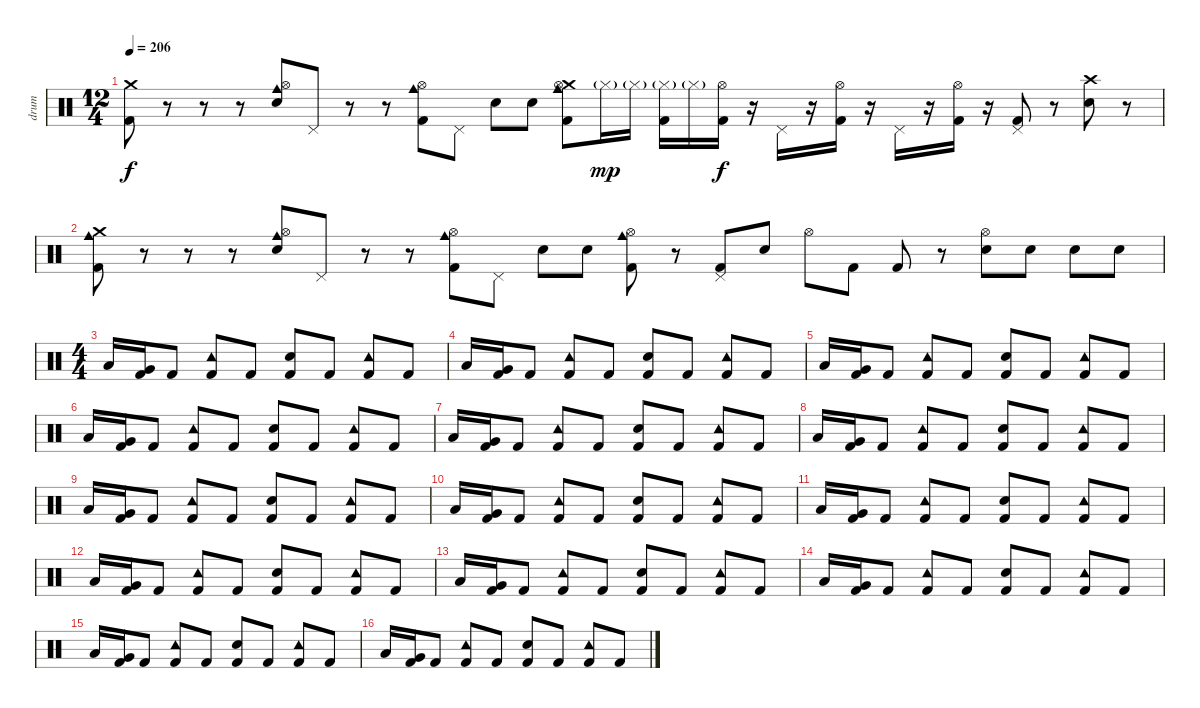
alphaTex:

\track ("drum" "drum") {instrument percussion}
\staff {score}
\articulation defaults
\ts (12 4)
\tempo 206
\clef neutral
\ks c
("Crash medium (hit)" "Kick (hit) 2").8{dy f} r.8 r.8 r.8 ("Cowbell medium (hit)" "Hi-Hat (open)" "Electric Snare (hit)").8 "Pedal Hi-Hat (hit)".8 r.8 r.8 ("Cowbell medium (hit)" "Hi-Hat (open)" "Kick (hit) 2").8 "Pedal Hi-Hat (hit)".8 "Electric Snare (hit)".8 "Electric Snare (hit)".8 ("Crash medium (hit)" "Cowbell medium (hit)" "Hi-Hat (open)" "Kick (hit) 2").8 "Hi-Hat (closed)"{g}.16{dy mp} "Hi-Hat (closed)"{g}.16 ("Hi-Hat (closed)"{g} "Kick (hit) 2").16 "Hi-Hat (closed)"{g}.16 ("Hi-Hat (open)" "Kick (hit) 2").16{dy f} r.16 "Pedal Hi-Hat (hit)".16 r.16 ("Hi-Hat (open)" "Kick (hit) 2").16 r.16 "Pedal Hi-Hat (hit)".16 r.16 ("Hi-Hat (open)" "Kick (hit) 2").16 r.16 ("Pedal Hi-Hat (hit)" "Kick (hit) 2").8 r.8 ("Crash high (hit)" "Electric Snare (hit)").8 r.8 |
("Crash medium (hit)" "Cowbell medium (hit)" "Kick (hit) 2").8 r.8 r.8 r.8 ("Cowbell medium (hit)" "Hi-Hat (open)" "Electric Snare (hit)").8 "Pedal Hi-Hat (hit)".8 r.8 r.8 ("Cowbell medium (hit)" "Hi-Hat (open)" "Kick (hit) 2").8 "Pedal Hi-Hat (hit)".8 "Electric Snare (hit)".8 "Electric Snare (hit)".8 ("Cowbell medium (hit)" "Hi-Hat (open)" "Kick (hit) 2").8 r.8 ("Pedal Hi-Hat (hit)" "Kick (hit) 2").8 "Electric Snare (hit)".8 "Hi-Hat (open)".8 "Kick (hit) 2".8 "Kick (hit) 2".8 r.8 ("Hi-Hat (open)" "Electric Snare (hit)").8 "Electric Snare (hit)".8 "Electric Snare (hit)".8 "Electric Snare (hit)".8 |
\ts (4 4)
"Low Tom (hit)".16 ("Very Low Tom (hit)" "Kick (hit) 2").16 "Kick (hit) 2".8 ("Tambourine (hit)" "Kick (hit) 2").8 "Kick (hit) 2".8 ("Electric Snare (hit)" "Kick (hit) 2").8 "Kick (hit) 2".8 ("Tambourine (hit)" "Kick (hit) 2").8 "Kick (hit) 2".8 |
"Low Tom (hit)".16 ("Very Low Tom (hit)" "Kick (hit) 2").16 "Kick (hit) 2".8 ("Tambourine (hit)" "Kick (hit) 2").8 "Kick (hit) 2".8 ("Electric Snare (hit)" "Kick (hit) 2").8 "Kick (hit) 2".8 ("Tambourine (hit)" "Kick (hit) 2").8 "Kick (hit) 2".8 |
"Low Tom (hit)".16 ("Very Low Tom (hit)" "Kick (hit) 2").16 "Kick (hit) 2".8 ("Tambourine (hit)" "Kick (hit) 2").8 "Kick (hit) 2".8 ("Electric Snare (hit)" "Kick (hit) 2").8 "Kick (hit) 2".8 ("Tambourine (hit)" "Kick (hit) 2").8 "Kick (hit) 2".8 |
"Low Tom (hit)".16 ("Very Low Tom (hit)" "Kick (hit) 2").16 "Kick (hit) 2".8 ("Tambourine (hit)" "Kick (hit) 2").8 "Kick (hit) 2".8 ("Electric Snare (hit)" "Kick (hit) 2").8 "Kick (hit) 2".8 ("Tambourine (hit)" "Kick (hit) 2").8 "Kick (hit) 2".8 |
"Low Tom (hit)".16 ("Very Low Tom (hit)" "Kick (hit) 2").16 "Kick (hit) 2".8 ("Tambourine (hit)" "Kick (hit) 2").8 "Kick (hit) 2".8 ("Electric Snare (hit)" "Kick (hit) 2").8 "Kick (hit) 2".8 ("Tambourine (hit)" "Kick (hit) 2").8 "Kick (hit) 2".8 |
"Low Tom (hit)".16 ("Very Low Tom (hit)" "Kick (hit) 2").16 "Kick (hit) 2".8 ("Tambourine (hit)" "Kick (hit) 2").8 "Kick (hit) 2".8 ("Electric Snare (hit)" "Kick (hit) 2").8 "Kick (hit) 2".8 ("Tambourine (hit)" "Kick (hit) 2").8 "Kick (hit) 2".8 |
"Low Tom (hit)".16 ("Very Low Tom (hit)" "Kick (hit) 2").16 "Kick (hit) 2".8 ("Tambourine (hit)" "Kick (hit) 2").8 "Kick (hit) 2".8 ("Electric Snare (hit)" "Kick (hit) 2").8 "Kick (hit) 2".8 ("Tambourine (hit)" "Kick (hit) 2").8 "Kick (hit) 2".8 |
"Low Tom (hit)".16 ("Very Low Tom (hit)" "Kick (hit) 2").16 "Kick (hit) 2".8 ("Tambourine (hit)" "Kick (hit) 2").8 "Kick (hit) 2".8 ("Electric Snare (hit)" "Kick (hit) 2").8 "Kick (hit) 2".8 ("Tambourine (hit)" "Kick (hit) 2").8 "Kick (hit) 2".8 |
"Low Tom (hit)".16 ("Very Low Tom (hit)" "Kick (hit) 2").16 "Kick (hit) 2".8 ("Tambourine (hit)" "Kick (hit) 2").8 "Kick (hit) 2".8 ("Electric Snare (hit)" "Kick (hit) 2").8 "Kick (hit) 2".8 ("Tambourine (hit)" "Kick (hit) 2").8 "Kick (hit) 2".8 |
"Low Tom (hit)".16 ("Very Low Tom (hit)" "Kick (hit) 2").16 "Kick (hit) 2".8 ("Tambourine (hit)" "Kick (hit) 2").8 "Kick (hit) 2".8 ("Electric Snare (hit)" "Kick (hit) 2").8 "Kick (hit) 2".8 ("Tambourine (hit)" "Kick (hit) 2").8 "Kick (hit) 2".8 |
"Low Tom (hit)".16 ("Very Low Tom (hit)" "Kick (hit) 2").16 "Kick (hit) 2".8 ("Tambourine (hit)" "Kick (hit) 2").8 "Kick (hit) 2".8 ("Electric Snare (hit)" "Kick (hit) 2").8 "Kick (hit) 2".8 ("Tambourine (hit)" "Kick (hit) 2").8 "Kick (hit) 2".8 |
"Low Tom (hit)".16 ("Very Low Tom (hit)" "Kick (hit) 2").16 "Kick (hit) 2".8 ("Tambourine (hit)" "Kick (hit) 2").8 "Kick (hit) 2".8 ("Electric Snare (hit)" "Kick (hit) 2").8 "Kick (hit) 2".8 ("Tambourine (hit)" "Kick (hit) 2").8 "Kick (hit) 2".8 |
"Low Tom (hit)".16 ("Very Low Tom (hit)" "Kick (hit) 2").16 "Kick (hit) 2".8 ("Tambourine (hit)" "Kick (hit) 2").8 "Kick (hit) 2".8 ("Electric Snare (hit)" "Kick (hit) 2").8 "Kick (hit) 2".8 ("Tambourine (hit)" "Kick (hit) 2").8 "Kick (hit) 2".8 |
"Low Tom (hit)".16 ("Very Low Tom (hit)" "Kick (hit) 2").16 "Kick (hit) 2".8 ("Tambourine (hit)" "Kick (hit) 2").8 "Kick (hit) 2".8 ("Electric Snare (hit)" "Kick (hit) 2").8 "Kick (hit) 2".8 ("Tambourine (hit)" "Kick (hit) 2").8 "Kick (hit) 2".8
